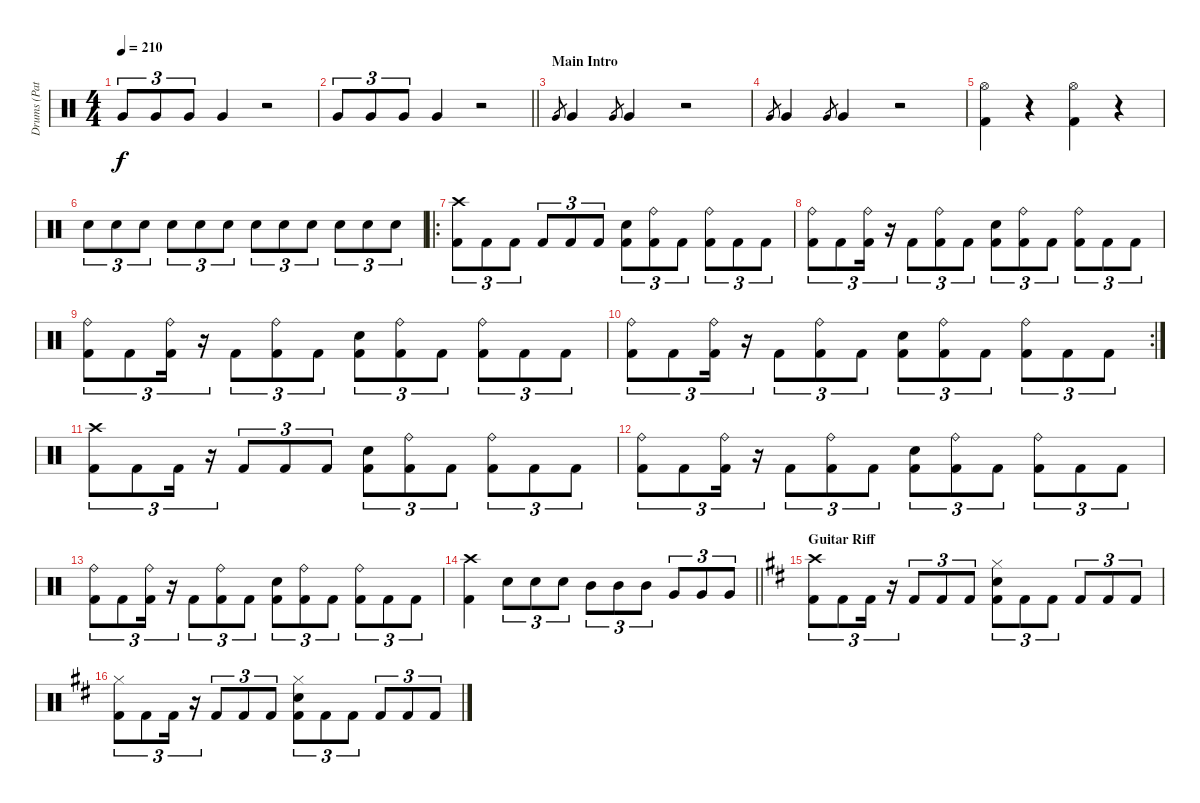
\track ("Drums (Patrick Johansson)" "Drums (Pat") {instrument percussion}
\staff {score}
\articulation defaults
\ts (4 4)
\tempo 210
\clef neutral
\ks c "Very Low Tom (hit)".8{tu (3 2) dy f} "Very Low Tom (hit)".8{tu (3 2)} "Very Low Tom (hit)".8{tu (3 2)} "Very Low Tom (hit)".4
r.2 |
\barLineRight lightlight "Very Low Tom (hit)".8{tu (3 2)} "Very Low Tom (hit)".8{tu (3 2)} "Very Low Tom (hit)".8{tu (3 2)} "Very Low Tom (hit)".4
r.2 |
\section ("" "Main Intro")
"Very Low Tom (hit)".8{gr} "Very Low Tom (hit)".4 "Very Low Tom (hit)".8{gr} "Very Low Tom (hit)".4 r.2 |
"Very Low Tom (hit)".8{gr} "Very Low Tom (hit)".4 "Very Low Tom (hit)".8{gr} "Very Low Tom (hit)".4 r.2 |
("Hi-Hat (open)" "Kick (hit) 2").4 r.4 ("Hi-Hat (open)" "Kick (hit) 2").4 r.4 |
"Electric Snare (hit)".8{tu (3 2)} "Electric Snare (hit)".8{tu (3 2)} "Electric Snare (hit)".8{tu (3 2)} "Electric Snare (hit)".8{tu (3 2)} "Electric Snare (hit)".8{tu (3 2)} "Electric Snare (hit)".8{tu (3 2)} "Electric Snare (hit)".8{tu (3 2)} "Electric Snare (hit)".8{tu (3 2)} "Electric Snare (hit)".8{tu (3 2)} "Electric Snare (hit)".8{tu (3 2)} "Electric Snare (hit)".8{tu (3 2)} "Electric Snare (hit)".8{tu (3 2)} |
\ro
("Crash high (hit)" "Kick (hit) 2").8{tu (3 2)} "Kick (hit) 2".8{tu (3 2)} "Kick (hit) 2".8{tu (3 2)} "Kick (hit) 2".8{tu (3 2)} "Kick (hit) 2".8{tu (3 2)} "Kick (hit) 2".8{tu (3 2)} ("Electric Snare (hit)" "Kick (hit) 2").8{tu (3 2)} ("Ride (bell)" "Kick (hit) 2").8{tu (3 2)} "Kick (hit) 2".8{tu (3 2)} ("Ride (bell)" "Kick (hit) 2").8{tu (3 2)} "Kick (hit) 2".8{tu (3 2)} "Kick (hit) 2".8{tu (3 2)} |
("Ride (bell)" "Kick (hit) 2").8{tu (3 2)} "Kick (hit) 2".8{tu (3 2)} ("Ride (bell)" "Kick (hit) 2").16{tu (3 2)} r.16{tu (3 2)} "Kick (hit) 2".8{tu (3 2)} ("Ride (bell)" "Kick (hit) 2").8{tu (3 2)} "Kick (hit) 2".8{tu (3 2)} ("Electric Snare (hit)" "Kick (hit) 2").8{tu (3 2)} ("Ride (bell)" "Kick (hit) 2").8{tu (3 2)} "Kick (hit) 2".8{tu (3 2)} ("Ride (bell)" "Kick (hit) 2").8{tu (3 2)} "Kick (hit) 2".8{tu (3 2)} "Kick (hit) 2".8{tu (3 2)} |
("Ride (bell)" "Kick (hit) 2").8{tu (3 2)} "Kick (hit) 2".8{tu (3 2)} ("Ride (bell)" "Kick (hit) 2").16{tu (3 2)} r.16{tu (3 2)} "Kick (hit) 2".8{tu (3 2)} ("Ride (bell)" "Kick (hit) 2").8{tu (3 2)} "Kick (hit) 2".8{tu (3 2)} ("Electric Snare (hit)" "Kick (hit) 2").8{tu (3 2)} ("Ride (bell)" "Kick (hit) 2").8{tu (3 2)} "Kick (hit) 2".8{tu (3 2)} ("Ride (bell)" "Kick (hit) 2").8{tu (3 2)} "Kick (hit) 2".8{tu (3 2)} "Kick (hit) 2".8{tu (3 2)} |
\rc 2
("Ride (bell)" "Kick (hit) 2").8{tu (3 2)} "Kick (hit) 2".8{tu (3 2)} ("Ride (bell)" "Kick (hit) 2").16{tu (3 2)} r.16{tu (3 2)} "Kick (hit) 2".8{tu (3 2)} ("Ride (bell)" "Kick (hit) 2").8{tu (3 2)} "Kick (hit) 2".8{tu (3 2)} ("Electric Snare (hit)" "Kick (hit) 2").8{tu (3 2)} ("Ride (bell)" "Kick (hit) 2").8{tu (3 2)} "Kick (hit) 2".8{tu (3 2)} ("Ride (bell)" "Kick (hit) 2").8{tu (3 2)} "Kick (hit) 2".8{tu (3 2)} "Kick (hit) 2".8{tu (3 2)} |
("Crash high (hit)" "Kick (hit) 2").8{tu (3 2)} "Kick (hit) 2".8{tu (3 2)} "Kick (hit) 2".16{tu (3 2)} r.16{tu (3 2)} "Kick (hit) 2".8{tu (3 2)} "Kick (hit) 2".8{tu (3 2)} "Kick (hit) 2".8{tu (3 2)} ("Electric Snare (hit)" "Kick (hit) 2").8{tu (3 2)} ("Ride (bell)" "Kick (hit) 2").8{tu (3 2)} "Kick (hit) 2".8{tu (3 2)} ("Ride (bell)" "Kick (hit) 2").8{tu (3 2)} "Kick (hit) 2".8{tu (3 2)} "Kick (hit) 2".8{tu (3 2)} |
("Ride (bell)" "Kick (hit) 2").8{tu (3 2)} "Kick (hit) 2".8{tu (3 2)} ("Ride (bell)" "Kick (hit) 2").16{tu (3 2)} r.16{tu (3 2)} "Kick (hit) 2".8{tu (3 2)} ("Ride (bell)" "Kick (hit) 2").8{tu (3 2)} "Kick (hit) 2".8{tu (3 2)} ("Electric Snare (hit)" "Kick (hit) 2").8{tu (3 2)} ("Ride (bell)" "Kick (hit) 2").8{tu (3 2)} "Kick (hit) 2".8{tu (3 2)} ("Ride (bell)" "Kick (hit) 2").8{tu (3 2)} "Kick (hit) 2".8{tu (3 2)} "Kick (hit) 2".8{tu (3 2)} |
("Ride (bell)" "Kick (hit) 2").8{tu (3 2)} "Kick (hit) 2".8{tu (3 2)} ("Ride (bell)" "Kick (hit) 2").16{tu (3 2)} r.16{tu (3 2)} "Kick (hit) 2".8{tu (3 2)} ("Ride (bell)" "Kick (hit) 2").8{tu (3 2)} "Kick (hit) 2".8{tu (3 2)} ("Electric Snare (hit)" "Kick (hit) 2").8{tu (3 2)} ("Ride (bell)" "Kick (hit) 2").8{tu (3 2)} "Kick (hit) 2".8{tu (3 2)} ("Ride (bell)" "Kick (hit) 2").8{tu (3 2)} "Kick (hit) 2".8{tu (3 2)} "Kick (hit) 2".8{tu (3 2)} |
\barLineRight lightlight
("Crash high (hit)" "Kick (hit) 2").4 "Electric Snare (hit)".8{tu (3 2)} "Electric Snare (hit)".8{tu (3 2)} "Electric Snare (hit)".8{tu (3 2)} "Mid Tom (hit)".8{tu (3 2)} "Mid Tom (hit)".8{tu (3 2)} "Mid Tom (hit)".8{tu (3 2)} "Very Low Tom (hit)".8{tu (3 2)} "Very Low Tom (hit)".8{tu (3 2)} "Very Low Tom (hit)".8{tu (3 2)} |
\section ("" "Guitar Riff")
\ks d
("Crash high (hit)" "Kick (hit) 2").8{tu (3 2)} "Kick (hit) 2".8{tu (3 2)} "Kick (hit) 2".16{tu (3 2)} r.16{tu (3 2)} "Kick (hit) 2".8{tu (3 2)} "Kick (hit) 2".8{tu (3 2)} "Kick (hit) 2".8{tu (3 2)} ("Electric Snare (hit)" "Hi-Hat (closed)" "Kick (hit) 2").8{tu (3 2)} "Kick (hit) 2".8{tu (3 2)} "Kick (hit) 2".8{tu (3 2)} "Kick (hit) 2".8{tu (3 2)} "Kick (hit) 2".8{tu (3 2)} "Kick (hit) 2".8{tu (3 2)} |
("Hi-Hat (closed)" "Kick (hit) 2").8{tu (3 2)} "Kick (hit) 2".8{tu (3 2)} "Kick (hit) 2".16{tu (3 2)} r.16{tu (3 2)} "Kick (hit) 2".8{tu (3 2)} "Kick (hit) 2".8{tu (3 2)} "Kick (hit) 2".8{tu (3 2)} ("Electric Snare (hit)" "Hi-Hat (closed)" "Kick (hit) 2").8{tu (3 2)} "Kick (hit) 2".8{tu (3 2)} "Kick (hit) 2".8{tu (3 2)} "Kick (hit) 2".8{tu (3 2)} "Kick (hit) 2".8{tu (3 2)} "Kick (hit) 2".8{tu (3 2)}
